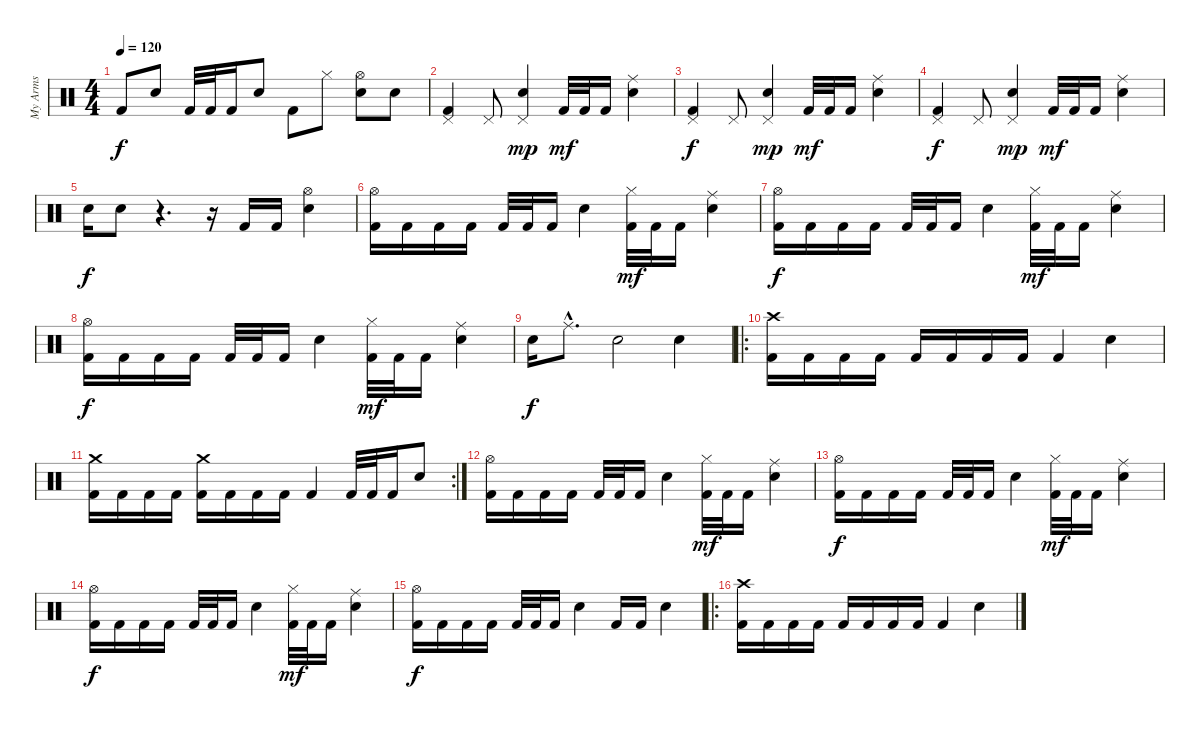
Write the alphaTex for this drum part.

\track ("My Arms" "My Arms") {instrument percussion}
\staff {score}
\articulation defaults
\ts (4 4)
\tempo 120
\clef neutral
\ks c "Kick (hit) 2".8{dy f} "Snare (hit) 2".8 "Kick (hit) 2".32 "Kick (hit) 2".32 "Kick (hit) 2".16 "Snare (hit) 2".8 "Kick (hit) 2".8 "Hi-Hat (closed)".8
("Hi-Hat (open)" "Snare (hit) 2").8 "Snare (hit) 2".8 |
("Pedal Hi-Hat (hit)" "Kick (hit) 2").4 "Pedal Hi-Hat (hit)".8 ("Pedal Hi-Hat (hit)" "Snare (hit) 2").4{dy mp} "Kick (hit) 2".32{dy mf} "Kick (hit) 2".32 "Kick (hit) 2".16 ("Ride (middle)" "Snare (hit) 2").4 |
("Pedal Hi-Hat (hit)" "Kick (hit) 2").4{dy f} "Pedal Hi-Hat (hit)".8 ("Pedal Hi-Hat (hit)" "Snare (hit) 2").4{dy mp} "Kick (hit) 2".32{dy mf} "Kick (hit) 2".32 "Kick (hit) 2".16 ("Ride (middle)" "Snare (hit) 2").4 |
("Pedal Hi-Hat (hit)" "Kick (hit) 2").4{dy f} "Pedal Hi-Hat (hit)".8 ("Pedal Hi-Hat (hit)" "Snare (hit) 2").4{dy mp} "Kick (hit) 2".32{dy mf} "Kick (hit) 2".32 "Kick (hit) 2".16 ("Ride (middle)" "Snare (hit) 2").4 |
"Snare (hit) 2".16{dy f} "Snare (hit) 2".8 r.4{d} r.16 "Kick (hit) 2".16 "Kick (hit) 2".16 ("Hi-Hat (open)" "Snare (hit) 2").4 |
("Hi-Hat (open)" "Kick (hit) 2").16 "Kick (hit) 2".16 "Kick (hit) 2".16 "Kick (hit) 2".16 "Kick (hit) 2".32 "Kick (hit) 2".32 "Kick (hit) 2".16 "Snare (hit) 2".4 ("Hi-Hat (closed)" "Kick (hit) 2").32{dy mf} "Kick (hit) 2".32 "Kick (hit) 2".16 ("Ride (middle)" "Snare (hit) 2").4 |
("Hi-Hat (open)" "Kick (hit) 2").16{dy f} "Kick (hit) 2".16 "Kick (hit) 2".16 "Kick (hit) 2".16 "Kick (hit) 2".32 "Kick (hit) 2".32 "Kick (hit) 2".16 "Snare (hit) 2".4 ("Hi-Hat (closed)" "Kick (hit) 2").32{dy mf} "Kick (hit) 2".32 "Kick (hit) 2".16 ("Ride (middle)" "Snare (hit) 2").4 |
("Hi-Hat (open)" "Kick (hit) 2").16{dy f} "Kick (hit) 2".16 "Kick (hit) 2".16 "Kick (hit) 2".16 "Kick (hit) 2".32 "Kick (hit) 2".32 "Kick (hit) 2".16 "Snare (hit) 2".4 ("Hi-Hat (closed)" "Kick (hit) 2").32{dy mf} "Kick (hit) 2".32 "Kick (hit) 2".16 ("Ride (middle)" "Snare (hit) 2").4 |
"Snare (hit) 2".16{dy f} "Ride (middle)"{hac}.8{d} "Snare (hit) 2".2 "Snare (hit) 2".4 |
\ro
("Crash high (hit)" "Kick (hit) 2").16 "Kick (hit) 2".16 "Kick (hit) 2".16 "Kick (hit) 2".16 "Kick (hit) 2".16 "Kick (hit) 2".16 "Kick (hit) 2".16 "Kick (hit) 2".16 "Kick (hit) 2".4 "Snare (hit) 2".4 |
\rc 2
("Crash medium (hit)" "Kick (hit) 2").16 "Kick (hit) 2".16 "Kick (hit) 2".16 "Kick (hit) 2".16 ("Crash medium (hit)" "Kick (hit) 2").16 "Kick (hit) 2".16 "Kick (hit) 2".16 "Kick (hit) 2".16 "Kick (hit) 2".4 "Kick (hit) 2".32 "Kick (hit) 2".32 "Kick (hit) 2".16 "Snare (hit) 2".8 |
("Hi-Hat (open)" "Kick (hit) 2").16 "Kick (hit) 2".16 "Kick (hit) 2".16 "Kick (hit) 2".16 "Kick (hit) 2".32 "Kick (hit) 2".32 "Kick (hit) 2".16 "Snare (hit) 2".4 ("Hi-Hat (closed)" "Kick (hit) 2").32{dy mf} "Kick (hit) 2".32 "Kick (hit) 2".16 ("Ride (middle)" "Snare (hit) 2").4 |
("Hi-Hat (open)" "Kick (hit) 2").16{dy f} "Kick (hit) 2".16 "Kick (hit) 2".16 "Kick (hit) 2".16 "Kick (hit) 2".32 "Kick (hit) 2".32 "Kick (hit) 2".16 "Snare (hit) 2".4 ("Hi-Hat (closed)" "Kick (hit) 2").32{dy mf} "Kick (hit) 2".32 "Kick (hit) 2".16 ("Ride (middle)" "Snare (hit) 2").4 |
("Hi-Hat (open)" "Kick (hit) 2").16{dy f} "Kick (hit) 2".16 "Kick (hit) 2".16 "Kick (hit) 2".16 "Kick (hit) 2".32 "Kick (hit) 2".32 "Kick (hit) 2".16 "Snare (hit) 2".4 ("Hi-Hat (closed)" "Kick (hit) 2").32{dy mf} "Kick (hit) 2".32 "Kick (hit) 2".16 ("Ride (middle)" "Snare (hit) 2").4 |
("Hi-Hat (open)" "Kick (hit) 2").16{dy f} "Kick (hit) 2".16 "Kick (hit) 2".16 "Kick (hit) 2".16 "Kick (hit) 2".32 "Kick (hit) 2".32 "Kick (hit) 2".16 "Snare (hit) 2".4 "Kick (hit) 2".16 "Kick (hit) 2".16 "Snare (hit) 2".4 |
\ro
("Crash high (hit)" "Kick (hit) 2").16 "Kick (hit) 2".16 "Kick (hit) 2".16 "Kick (hit) 2".16 "Kick (hit) 2".16 "Kick (hit) 2".16 "Kick (hit) 2".16 "Kick (hit) 2".16 "Kick (hit) 2".4 "Snare (hit) 2".4
